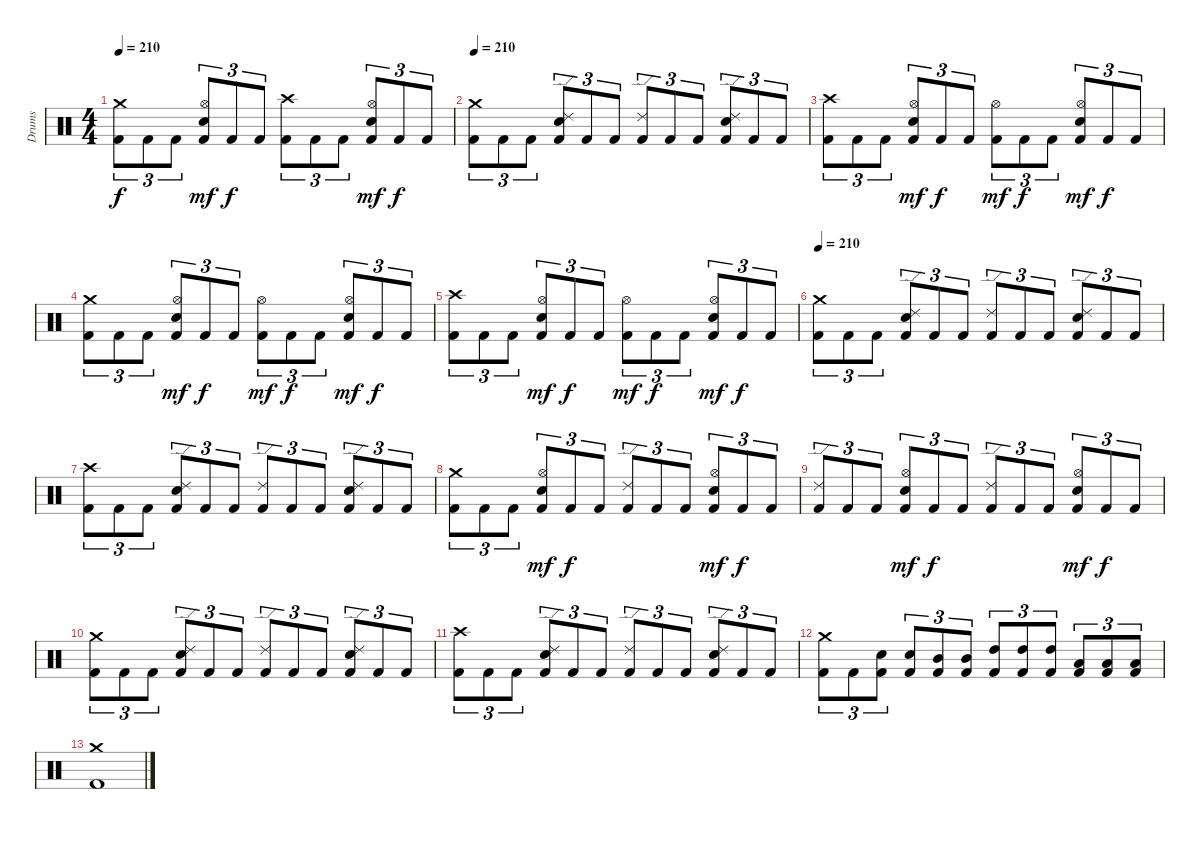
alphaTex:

\track ("Drums" "Drums") {instrument percussion}
\staff {score}
\articulation defaults
\ts (4 4)
\tempo 210
\clef neutral
\ks c
("Crash medium (hit)" "Kick (hit) 2").8{tu (3 2) dy f} "Kick (hit) 2".8{tu (3 2)} "Kick (hit) 2".8{tu (3 2)} ("Hi-Hat (open)" "Electric Snare (hit)" "Kick (hit) 2").8{tu (3 2) dy mf} "Kick (hit) 2".8{tu (3 2) dy f} "Kick (hit) 2".8{tu (3 2)} ("Crash high (hit)" "Kick (hit) 2").8{tu (3 2)} "Kick (hit) 2".8{tu (3 2)} "Kick (hit) 2".8{tu (3 2)} ("Hi-Hat (open)" "Electric Snare (hit)" "Kick (hit) 2").8{tu (3 2) dy mf} "Kick (hit) 2".8{tu (3 2) dy f} "Kick (hit) 2".8{tu (3 2)} |
\tempo 210
("Crash medium (hit)" "Kick (hit) 2").8{tu (3 2)} "Kick (hit) 2".8{tu (3 2)} "Kick (hit) 2".8{tu (3 2)} ("Ride (edge) 2" "Electric Snare (hit)" "Kick (hit) 2").8{tu (3 2)} "Kick (hit) 2".8{tu (3 2)} "Kick (hit) 2".8{tu (3 2)} ("Ride (edge) 2" "Kick (hit) 2").8{tu (3 2)} "Kick (hit) 2".8{tu (3 2)} "Kick (hit) 2".8{tu (3 2)} ("Ride (edge) 2" "Electric Snare (hit)" "Kick (hit) 2").8{tu (3 2)} "Kick (hit) 2".8{tu (3 2)} "Kick (hit) 2".8{tu (3 2)} |
("Crash high (hit)" "Kick (hit) 2").8{tu (3 2)} "Kick (hit) 2".8{tu (3 2)} "Kick (hit) 2".8{tu (3 2)} ("Hi-Hat (open)" "Electric Snare (hit)" "Kick (hit) 2").8{tu (3 2) dy mf} "Kick (hit) 2".8{tu (3 2) dy f} "Kick (hit) 2".8{tu (3 2)} ("Hi-Hat (open)" "Kick (hit) 2").8{tu (3 2) dy mf} "Kick (hit) 2".8{tu (3 2) dy f} "Kick (hit) 2".8{tu (3 2)} ("Hi-Hat (open)" "Electric Snare (hit)" "Kick (hit) 2").8{tu (3 2) dy mf} "Kick (hit) 2".8{tu (3 2) dy f} "Kick (hit) 2".8{tu (3 2)} |
("Crash medium (hit)" "Kick (hit) 2").8{tu (3 2)} "Kick (hit) 2".8{tu (3 2)} "Kick (hit) 2".8{tu (3 2)} ("Hi-Hat (open)" "Electric Snare (hit)" "Kick (hit) 2").8{tu (3 2) dy mf} "Kick (hit) 2".8{tu (3 2) dy f} "Kick (hit) 2".8{tu (3 2)} ("Hi-Hat (open)" "Kick (hit) 2").8{tu (3 2) dy mf} "Kick (hit) 2".8{tu (3 2) dy f} "Kick (hit) 2".8{tu (3 2)} ("Hi-Hat (open)" "Electric Snare (hit)" "Kick (hit) 2").8{tu (3 2) dy mf} "Kick (hit) 2".8{tu (3 2) dy f} "Kick (hit) 2".8{tu (3 2)} |
("Crash high (hit)" "Kick (hit) 2").8{tu (3 2)} "Kick (hit) 2".8{tu (3 2)} "Kick (hit) 2".8{tu (3 2)} ("Hi-Hat (open)" "Electric Snare (hit)" "Kick (hit) 2").8{tu (3 2) dy mf} "Kick (hit) 2".8{tu (3 2) dy f} "Kick (hit) 2".8{tu (3 2)} ("Hi-Hat (open)" "Kick (hit) 2").8{tu (3 2) dy mf} "Kick (hit) 2".8{tu (3 2) dy f} "Kick (hit) 2".8{tu (3 2)} ("Hi-Hat (open)" "Electric Snare (hit)" "Kick (hit) 2").8{tu (3 2) dy mf} "Kick (hit) 2".8{tu (3 2) dy f} "Kick (hit) 2".8{tu (3 2)} |
\tempo 210
("Crash medium (hit)" "Kick (hit) 2").8{tu (3 2)} "Kick (hit) 2".8{tu (3 2)} "Kick (hit) 2".8{tu (3 2)} ("Ride (edge) 2" "Electric Snare (hit)" "Kick (hit) 2").8{tu (3 2)} "Kick (hit) 2".8{tu (3 2)} "Kick (hit) 2".8{tu (3 2)} ("Ride (edge) 2" "Kick (hit) 2").8{tu (3 2)} "Kick (hit) 2".8{tu (3 2)} "Kick (hit) 2".8{tu (3 2)} ("Ride (edge) 2" "Electric Snare (hit)" "Kick (hit) 2").8{tu (3 2)} "Kick (hit) 2".8{tu (3 2)} "Kick (hit) 2".8{tu (3 2)} |
("Crash high (hit)" "Kick (hit) 2").8{tu (3 2)} "Kick (hit) 2".8{tu (3 2)} "Kick (hit) 2".8{tu (3 2)} ("Ride (edge) 2" "Electric Snare (hit)" "Kick (hit) 2").8{tu (3 2)} "Kick (hit) 2".8{tu (3 2)} "Kick (hit) 2".8{tu (3 2)} ("Ride (edge) 2" "Kick (hit) 2").8{tu (3 2)} "Kick (hit) 2".8{tu (3 2)} "Kick (hit) 2".8{tu (3 2)} ("Ride (edge) 2" "Electric Snare (hit)" "Kick (hit) 2").8{tu (3 2)} "Kick (hit) 2".8{tu (3 2)} "Kick (hit) 2".8{tu (3 2)} |
("Crash medium (hit)" "Kick (hit) 2").8{tu (3 2)} "Kick (hit) 2".8{tu (3 2)} "Kick (hit) 2".8{tu (3 2)} ("Hi-Hat (open)" "Electric Snare (hit)" "Kick (hit) 2").8{tu (3 2) dy mf} "Kick (hit) 2".8{tu (3 2) dy f} "Kick (hit) 2".8{tu (3 2)} ("Ride (edge) 2" "Kick (hit) 2").8{tu (3 2)} "Kick (hit) 2".8{tu (3 2)} "Kick (hit) 2".8{tu (3 2)} ("Hi-Hat (open)" "Electric Snare (hit)" "Kick (hit) 2").8{tu (3 2) dy mf} "Kick (hit) 2".8{tu (3 2) dy f} "Kick (hit) 2".8{tu (3 2)} |
("Ride (edge) 2" "Kick (hit) 2").8{tu (3 2)} "Kick (hit) 2".8{tu (3 2)} "Kick (hit) 2".8{tu (3 2)} ("Hi-Hat (open)" "Electric Snare (hit)" "Kick (hit) 2").8{tu (3 2) dy mf} "Kick (hit) 2".8{tu (3 2) dy f} "Kick (hit) 2".8{tu (3 2)} ("Ride (edge) 2" "Kick (hit) 2").8{tu (3 2)} "Kick (hit) 2".8{tu (3 2)} "Kick (hit) 2".8{tu (3 2)} ("Hi-Hat (open)" "Electric Snare (hit)" "Kick (hit) 2").8{tu (3 2) dy mf} "Kick (hit) 2".8{tu (3 2) dy f} "Kick (hit) 2".8{tu (3 2)} |
("Crash medium (hit)" "Kick (hit) 2").8{tu (3 2)} "Kick (hit) 2".8{tu (3 2)} "Kick (hit) 2".8{tu (3 2)} ("Ride (edge) 2" "Electric Snare (hit)" "Kick (hit) 2").8{tu (3 2)} "Kick (hit) 2".8{tu (3 2)} "Kick (hit) 2".8{tu (3 2)} ("Ride (edge) 2" "Kick (hit) 2").8{tu (3 2)} "Kick (hit) 2".8{tu (3 2)} "Kick (hit) 2".8{tu (3 2)} ("Ride (edge) 2" "Electric Snare (hit)" "Kick (hit) 2").8{tu (3 2)} "Kick (hit) 2".8{tu (3 2)} "Kick (hit) 2".8{tu (3 2)} |
("Crash high (hit)" "Kick (hit) 2").8{tu (3 2)} "Kick (hit) 2".8{tu (3 2)} "Kick (hit) 2".8{tu (3 2)} ("Ride (edge) 2" "Electric Snare (hit)" "Kick (hit) 2").8{tu (3 2)} "Kick (hit) 2".8{tu (3 2)} "Kick (hit) 2".8{tu (3 2)} ("Ride (edge) 2" "Kick (hit) 2").8{tu (3 2)} "Kick (hit) 2".8{tu (3 2)} "Kick (hit) 2".8{tu (3 2)} ("Ride (edge) 2" "Electric Snare (hit)" "Kick (hit) 2").8{tu (3 2)} "Kick (hit) 2".8{tu (3 2)} "Kick (hit) 2".8{tu (3 2)} |
("Crash medium (hit)" "Kick (hit) 2").8{tu (3 2)} "Kick (hit) 2".8{tu (3 2)} ("Electric Snare (hit)" "Kick (hit) 2").8{tu (3 2)} ("Electric Snare (hit)" "Kick (hit) 2").8{tu (3 2)} ("Mid Tom (hit)" "Kick (hit) 2").8{tu (3 2)} ("Mid Tom (hit)" "Kick (hit) 2").8{tu (3 2)} ("High Tom (hit)" "Kick (hit) 2").8{tu (3 2)} ("High Tom (hit)" "Kick (hit) 2").8{tu (3 2)} ("High Tom (hit)" "Kick (hit) 2").8{tu (3 2)} ("Low Tom (hit)" "Kick (hit) 2").8{tu (3 2)} ("Low Tom (hit)" "Kick (hit) 2").8{tu (3 2)} ("Low Tom (hit)" "Kick (hit) 2").8{tu (3 2)} |
("Crash medium (hit)" "Kick (hit) 2").1
